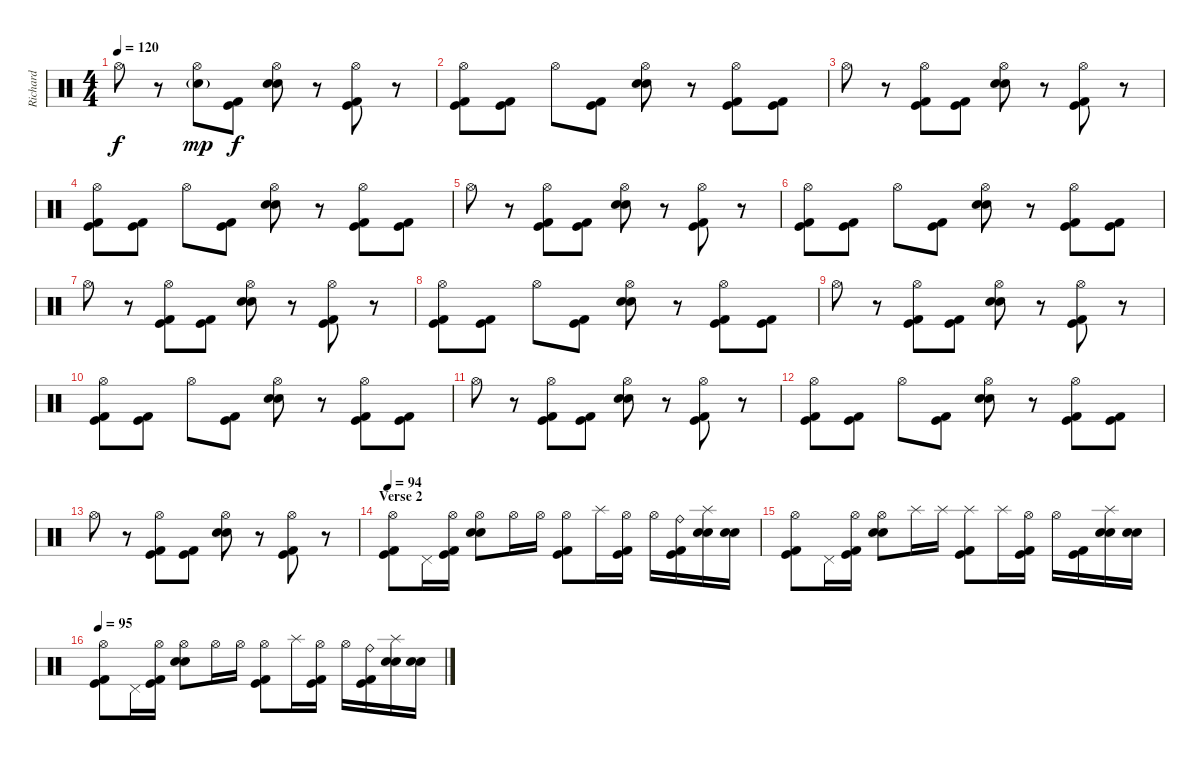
\track ("Richard" "Richard") {instrument percussion}
\staff {score}
\articulation defaults
\ts (4 4)
\tempo 120
\clef neutral
\ks c "Hi-Hat (open)".8{dy f}
r.8 ("Hi-Hat (open)" "Electric Snare (hit)"{g}).8{dy mp} ("Kick (hit)" "Kick (hit) 2").8{dy f} ("Hi-Hat (open)" "Snare (hit) 2" "Electric Snare (hit)").8 r.8 ("Hi-Hat (open)" "Kick (hit)" "Kick (hit) 2").8 r.8 |
("Hi-Hat (open)" "Kick (hit)" "Kick (hit) 2").8 ("Kick (hit)" "Kick (hit) 2").8 "Hi-Hat (open)".8 ("Kick (hit)" "Kick (hit) 2").8 ("Hi-Hat (open)" "Snare (hit) 2" "Electric Snare (hit)").8 r.8 ("Hi-Hat (open)" "Kick (hit)" "Kick (hit) 2").8 ("Kick (hit)" "Kick (hit) 2").8 |
"Hi-Hat (open)".8 r.8 ("Hi-Hat (open)" "Kick (hit)" "Kick (hit) 2").8 ("Kick (hit)" "Kick (hit) 2").8 ("Hi-Hat (open)" "Snare (hit) 2" "Electric Snare (hit)").8 r.8 ("Hi-Hat (open)" "Kick (hit)" "Kick (hit) 2").8 r.8 |
("Hi-Hat (open)" "Kick (hit)" "Kick (hit) 2").8 ("Kick (hit)" "Kick (hit) 2").8 "Hi-Hat (open)".8 ("Kick (hit)" "Kick (hit) 2").8 ("Hi-Hat (open)" "Snare (hit) 2" "Electric Snare (hit)").8 r.8 ("Hi-Hat (open)" "Kick (hit)" "Kick (hit) 2").8 ("Kick (hit)" "Kick (hit) 2").8 |
"Hi-Hat (open)".8 r.8 ("Hi-Hat (open)" "Kick (hit)" "Kick (hit) 2").8 ("Kick (hit)" "Kick (hit) 2").8 ("Hi-Hat (open)" "Snare (hit) 2" "Electric Snare (hit)").8 r.8 ("Hi-Hat (open)" "Kick (hit)" "Kick (hit) 2").8 r.8 |
("Hi-Hat (open)" "Kick (hit)" "Kick (hit) 2").8 ("Kick (hit)" "Kick (hit) 2").8 "Hi-Hat (open)".8 ("Kick (hit)" "Kick (hit) 2").8 ("Hi-Hat (open)" "Snare (hit) 2" "Electric Snare (hit)").8 r.8 ("Hi-Hat (open)" "Kick (hit)" "Kick (hit) 2").8 ("Kick (hit)" "Kick (hit) 2").8 |
"Hi-Hat (open)".8 r.8 ("Hi-Hat (open)" "Kick (hit)" "Kick (hit) 2").8 ("Kick (hit)" "Kick (hit) 2").8 ("Hi-Hat (open)" "Snare (hit) 2" "Electric Snare (hit)").8 r.8 ("Hi-Hat (open)" "Kick (hit)" "Kick (hit) 2").8 r.8 |
("Hi-Hat (open)" "Kick (hit)" "Kick (hit) 2").8 ("Kick (hit)" "Kick (hit) 2").8 "Hi-Hat (open)".8 ("Kick (hit)" "Kick (hit) 2").8 ("Hi-Hat (open)" "Snare (hit) 2" "Electric Snare (hit)").8 r.8 ("Hi-Hat (open)" "Kick (hit)" "Kick (hit) 2").8 ("Kick (hit)" "Kick (hit) 2").8 |
"Hi-Hat (open)".8 r.8 ("Hi-Hat (open)" "Kick (hit)" "Kick (hit) 2").8 ("Kick (hit)" "Kick (hit) 2").8 ("Hi-Hat (open)" "Snare (hit) 2" "Electric Snare (hit)").8 r.8 ("Hi-Hat (open)" "Kick (hit)" "Kick (hit) 2").8 r.8 |
("Hi-Hat (open)" "Kick (hit)" "Kick (hit) 2").8 ("Kick (hit)" "Kick (hit) 2").8 "Hi-Hat (open)".8 ("Kick (hit)" "Kick (hit) 2").8 ("Hi-Hat (open)" "Snare (hit) 2" "Electric Snare (hit)").8 r.8 ("Hi-Hat (open)" "Kick (hit)" "Kick (hit) 2").8 ("Kick (hit)" "Kick (hit) 2").8 |
"Hi-Hat (open)".8 r.8 ("Hi-Hat (open)" "Kick (hit)" "Kick (hit) 2").8 ("Kick (hit)" "Kick (hit) 2").8 ("Hi-Hat (open)" "Snare (hit) 2" "Electric Snare (hit)").8 r.8 ("Hi-Hat (open)" "Kick (hit)" "Kick (hit) 2").8 r.8 |
("Hi-Hat (open)" "Kick (hit)" "Kick (hit) 2").8 ("Kick (hit)" "Kick (hit) 2").8 "Hi-Hat (open)".8 ("Kick (hit)" "Kick (hit) 2").8 ("Hi-Hat (open)" "Snare (hit) 2" "Electric Snare (hit)").8 r.8 ("Hi-Hat (open)" "Kick (hit)" "Kick (hit) 2").8 ("Kick (hit)" "Kick (hit) 2").8 |
"Hi-Hat (open)".8 r.8 ("Hi-Hat (open)" "Kick (hit)" "Kick (hit) 2").8 ("Kick (hit)" "Kick (hit) 2").8 ("Hi-Hat (open)" "Snare (hit) 2" "Electric Snare (hit)").8 r.8 ("Hi-Hat (open)" "Kick (hit)" "Kick (hit) 2").8 r.8 |
\section ("" "Verse 2")
\tempo 95
\tempo 94
("Hi-Hat (open)" "Kick (hit)" "Kick (hit) 2").8 "Pedal Hi-Hat (hit)".16 ("Hi-Hat (open)" "Kick (hit)" "Kick (hit) 2").16 ("Hi-Hat (open)" "Snare (hit) 2" "Electric Snare (hit)").8 "Hi-Hat (open)".16 "Hi-Hat (open)".16 ("Hi-Hat (open)" "Kick (hit)" "Kick (hit) 2").8 "Splash (hit)".16 ("Hi-Hat (open)" "Kick (hit)" "Kick (hit) 2").16 "Hi-Hat (open)".16 ("Ride (bell)" "Kick (hit)" "Kick (hit) 2").16 ("Splash (hit)" "Snare (hit) 2" "Electric Snare (hit)").16 ("Snare (hit) 2" "Electric Snare (hit)").16 |
("Hi-Hat (open)" "Kick (hit)" "Kick (hit) 2").8 "Pedal Hi-Hat (hit)".16 ("Hi-Hat (open)" "Kick (hit)" "Kick (hit) 2").16 ("Hi-Hat (open)" "Snare (hit) 2" "Electric Snare (hit)").8 "Splash (hit)".16 "Splash (hit)".16 ("Splash (hit)" "Kick (hit)" "Kick (hit) 2").8 "Splash (hit)".16 ("Hi-Hat (open)" "Kick (hit)" "Kick (hit) 2").16 "Hi-Hat (open)".16 ("Kick (hit)" "Kick (hit) 2").16 ("Splash (hit)" "Snare (hit) 2" "Electric Snare (hit)").16 ("Snare (hit) 2" "Electric Snare (hit)").16 |
\tempo 95
("Hi-Hat (open)" "Kick (hit)" "Kick (hit) 2").8 "Pedal Hi-Hat (hit)".16 ("Hi-Hat (open)" "Kick (hit)" "Kick (hit) 2").16 ("Hi-Hat (open)" "Snare (hit) 2" "Electric Snare (hit)").8 "Hi-Hat (open)".16 "Hi-Hat (open)".16 ("Hi-Hat (open)" "Kick (hit)" "Kick (hit) 2").8 "Splash (hit)".16 ("Hi-Hat (open)" "Kick (hit)" "Kick (hit) 2").16 "Hi-Hat (open)".16 ("Ride (bell)" "Kick (hit)" "Kick (hit) 2").16 ("Splash (hit)" "Snare (hit) 2" "Electric Snare (hit)").16 ("Snare (hit) 2" "Electric Snare (hit)").16
